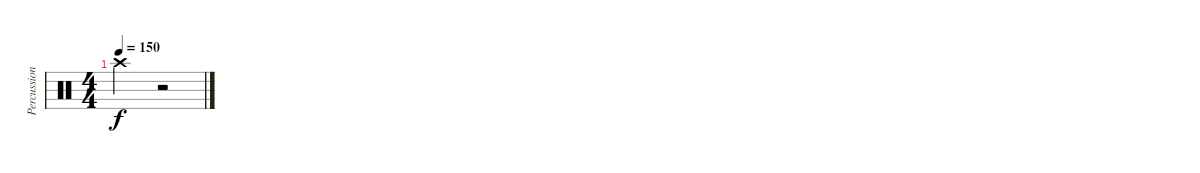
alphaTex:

\track ("Percussion" "Percussion") {instrument percussion}
\staff {score}
\articulation defaults
\ts (4 4)
\tempo 150
\clef neutral
\ks c "Crash high (hit)".2{dy f}
r.2
